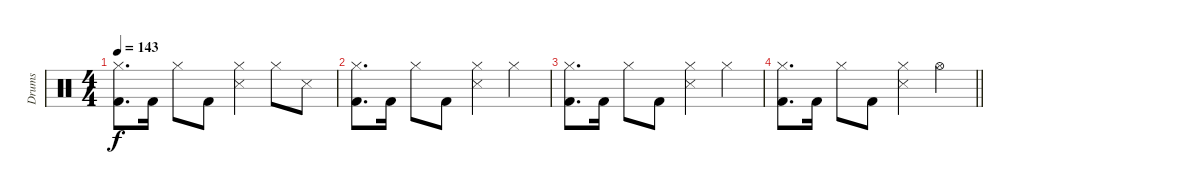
\track ("Drums" "Drums") {instrument percussion}
\staff {score}
\articulation defaults
\ts (4 4)
\tempo 143
\clef neutral
\ks c
("Hi-Hat (closed)" "Kick (hit) 2").8{d dy f} "Kick (hit) 2".16 "Hi-Hat (closed)".8 "Kick (hit) 2".8 ("Hi-Hat (closed)" "Snare (side stick) 3").4 "Hi-Hat (closed)".8 "Snare (side stick) 3".8 |
("Hi-Hat (closed)" "Kick (hit) 2").8{d} "Kick (hit) 2".16 "Hi-Hat (closed)".8 "Kick (hit) 2".8 ("Hi-Hat (closed)" "Snare (side stick) 3").4 "Hi-Hat (closed)".4 |
("Hi-Hat (closed)" "Kick (hit) 2").8{d} "Kick (hit) 2".16 "Hi-Hat (closed)".8 "Kick (hit) 2".8 ("Hi-Hat (closed)" "Snare (side stick) 3").4 "Hi-Hat (closed)".4 |
\barLineRight lightlight
("Hi-Hat (closed)" "Kick (hit) 2").8{d} "Kick (hit) 2".16 "Hi-Hat (closed)".8 "Kick (hit) 2".8 ("Hi-Hat (closed)" "Snare (side stick) 3").4 "Hi-Hat (open)".4
